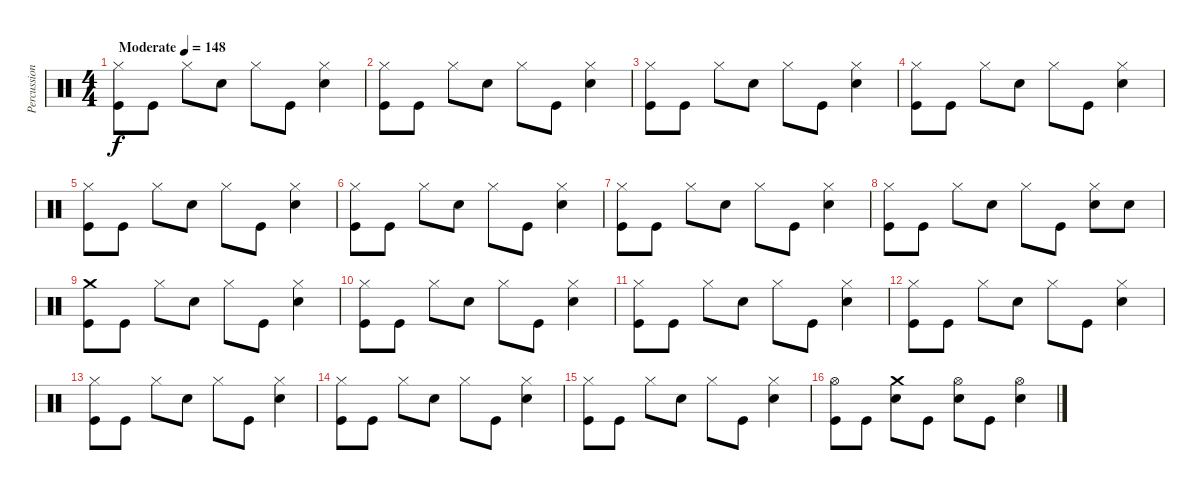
\track ("Percussion" "Percussion") {instrument percussion}
\staff {score}
\articulation defaults
\ts (4 4)
\tempo (148 "Moderate")
\clef neutral
\ks c
("Hi-Hat (closed)" "Kick (hit)").8{dy f} "Kick (hit)".8 "Hi-Hat (closed)".8 "Electric Snare (hit)".8 "Hi-Hat (closed)".8 "Kick (hit)".8 ("Hi-Hat (closed)" "Electric Snare (hit)").4 |
("Hi-Hat (closed)" "Kick (hit)").8 "Kick (hit)".8 "Hi-Hat (closed)".8 "Electric Snare (hit)".8 "Hi-Hat (closed)".8 "Kick (hit)".8 ("Hi-Hat (closed)" "Electric Snare (hit)").4 |
("Hi-Hat (closed)" "Kick (hit)").8 "Kick (hit)".8 "Hi-Hat (closed)".8 "Electric Snare (hit)".8 "Hi-Hat (closed)".8 "Kick (hit)".8 ("Hi-Hat (closed)" "Electric Snare (hit)").4 |
("Hi-Hat (closed)" "Kick (hit)").8 "Kick (hit)".8 "Hi-Hat (closed)".8 "Electric Snare (hit)".8 "Hi-Hat (closed)".8 "Kick (hit)".8 ("Hi-Hat (closed)" "Electric Snare (hit)").4 |
("Hi-Hat (closed)" "Kick (hit)").8 "Kick (hit)".8 "Hi-Hat (closed)".8 "Electric Snare (hit)".8 "Hi-Hat (closed)".8 "Kick (hit)".8 ("Hi-Hat (closed)" "Electric Snare (hit)").4 |
("Hi-Hat (closed)" "Kick (hit)").8 "Kick (hit)".8 "Hi-Hat (closed)".8 "Electric Snare (hit)".8 "Hi-Hat (closed)".8 "Kick (hit)".8 ("Hi-Hat (closed)" "Electric Snare (hit)").4 |
("Hi-Hat (closed)" "Kick (hit)").8 "Kick (hit)".8 "Hi-Hat (closed)".8 "Electric Snare (hit)".8 "Hi-Hat (closed)".8 "Kick (hit)".8 ("Hi-Hat (closed)" "Electric Snare (hit)").4 |
("Hi-Hat (closed)" "Kick (hit)").8 "Kick (hit)".8 "Hi-Hat (closed)".8 "Electric Snare (hit)".8 "Hi-Hat (closed)".8 "Kick (hit)".8 ("Hi-Hat (closed)" "Electric Snare (hit)").8 "Electric Snare (hit)".8 |
("Crash medium (hit)" "Kick (hit)").8 "Kick (hit)".8 "Hi-Hat (closed)".8 "Electric Snare (hit)".8 "Hi-Hat (closed)".8 "Kick (hit)".8 ("Hi-Hat (closed)" "Electric Snare (hit)").4 |
("Hi-Hat (closed)" "Kick (hit)").8 "Kick (hit)".8 "Hi-Hat (closed)".8 "Electric Snare (hit)".8 "Hi-Hat (closed)".8 "Kick (hit)".8 ("Hi-Hat (closed)" "Electric Snare (hit)").4 |
("Hi-Hat (closed)" "Kick (hit)").8 "Kick (hit)".8 "Hi-Hat (closed)".8 "Electric Snare (hit)".8 "Hi-Hat (closed)".8 "Kick (hit)".8 ("Hi-Hat (closed)" "Electric Snare (hit)").4 |
("Hi-Hat (closed)" "Kick (hit)").8 "Kick (hit)".8 "Hi-Hat (closed)".8 "Electric Snare (hit)".8 "Hi-Hat (closed)".8 "Kick (hit)".8 ("Hi-Hat (closed)" "Electric Snare (hit)").4 |
("Hi-Hat (closed)" "Kick (hit)").8 "Kick (hit)".8 "Hi-Hat (closed)".8 "Electric Snare (hit)".8 "Hi-Hat (closed)".8 "Kick (hit)".8 ("Hi-Hat (closed)" "Electric Snare (hit)").4 |
("Hi-Hat (closed)" "Kick (hit)").8 "Kick (hit)".8 "Hi-Hat (closed)".8 "Electric Snare (hit)".8 "Hi-Hat (closed)".8 "Kick (hit)".8 ("Hi-Hat (closed)" "Electric Snare (hit)").4 |
("Hi-Hat (closed)" "Kick (hit)").8 "Kick (hit)".8 "Hi-Hat (closed)".8 "Electric Snare (hit)".8 "Hi-Hat (closed)".8 "Kick (hit)".8 ("Hi-Hat (closed)" "Electric Snare (hit)").4 |
("Hi-Hat (open)" "Kick (hit)").8 "Kick (hit)".8 ("Crash medium (hit)" "Electric Snare (hit)").8 "Kick (hit)".8 ("Hi-Hat (open)" "Electric Snare (hit)").8 "Kick (hit)".8 ("Hi-Hat (open)" "Electric Snare (hit)").4
